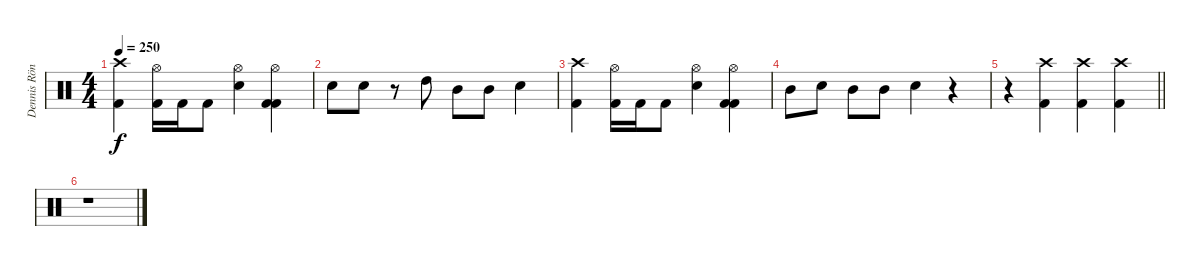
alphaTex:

\track ("Dennis Röndum" "Dennis Rön") {instrument percussion}
\staff {score}
\articulation defaults
\ts (4 4)
\tempo 250
\clef neutral
\ks c
("Crash high (hit)" "Kick (hit) 2").4{dy f} ("Hi-Hat (open)" "Kick (hit) 2").16 "Kick (hit) 2".16 "Kick (hit) 2".8 ("Snare (hit) 2" "Hi-Hat (open)").4 ("Hi-Hat (open)" "Kick (hit) 2" "Kick (hit) 2").4 |
"Snare (hit) 2".8 "Snare (hit) 2".8 r.8 "High Tom (hit)".8 "Mid Tom (hit)".8 "Mid Tom (hit)".8 "Snare (hit) 2".4 |
("Crash high (hit)" "Kick (hit) 2").4 ("Hi-Hat (open)" "Kick (hit) 2").16 "Kick (hit) 2".16 "Kick (hit) 2".8 ("Snare (hit) 2" "Hi-Hat (open)").4 ("Hi-Hat (open)" "Kick (hit) 2" "Kick (hit) 2").4 |
"Mid Tom (hit)".8 "Snare (hit) 2".8 "Mid Tom (hit)".8 "Mid Tom (hit)".8 "Snare (hit) 2".4 r.4 |
\barLineRight lightlight
r.4 ("Crash high (hit)" "Kick (hit) 2").4 ("Crash high (hit)" "Kick (hit) 2").4 ("Crash high (hit)" "Kick (hit) 2").4 |
r.1
